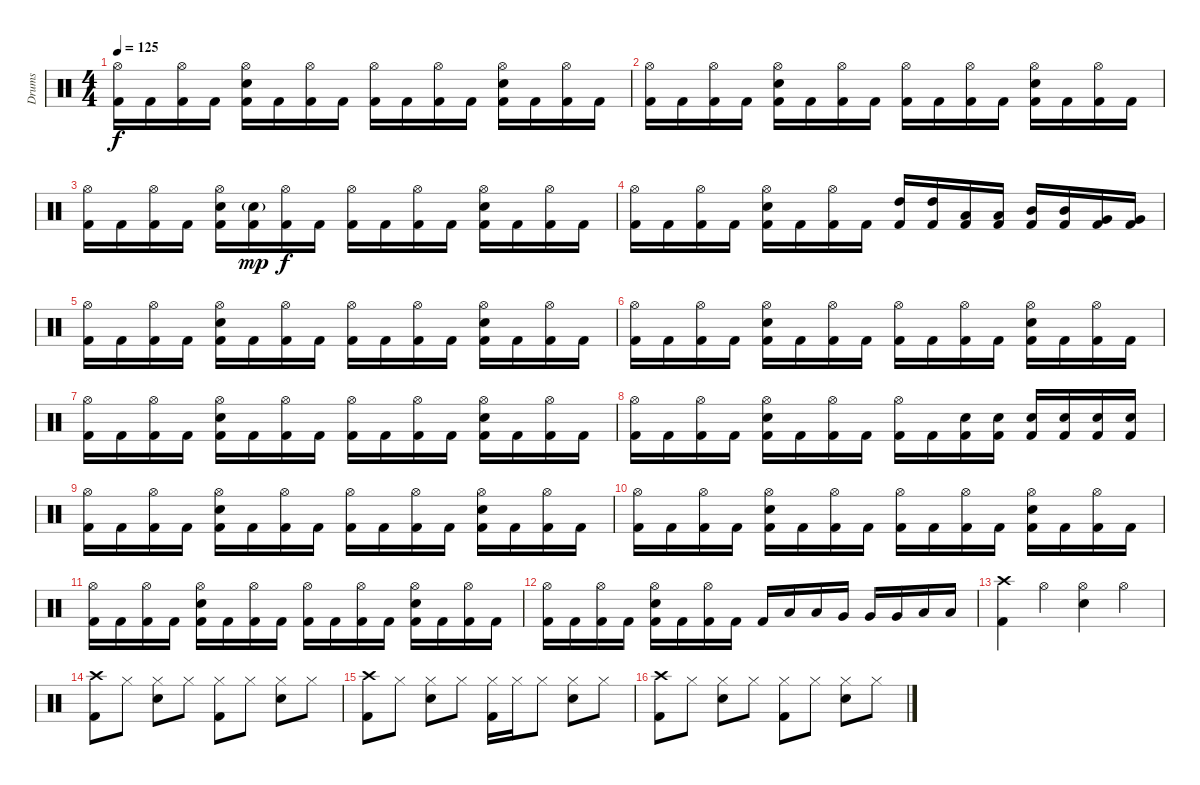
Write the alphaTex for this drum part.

\track ("Drums" "Drums") {instrument percussion}
\staff {score}
\articulation defaults
\ts (4 4)
\tempo 125
\clef neutral
\ks c
("Hi-Hat (open)" "Kick (hit) 2").16{dy f} "Kick (hit) 2".16 ("Hi-Hat (open)" "Kick (hit) 2").16 "Kick (hit) 2".16 ("Hi-Hat (open)" "Electric Snare (hit)" "Kick (hit) 2").16 "Kick (hit) 2".16 ("Hi-Hat (open)" "Kick (hit) 2").16 "Kick (hit) 2".16 ("Hi-Hat (open)" "Kick (hit) 2").16 "Kick (hit) 2".16 ("Hi-Hat (open)" "Kick (hit) 2").16 "Kick (hit) 2".16 ("Hi-Hat (open)" "Electric Snare (hit)" "Kick (hit) 2").16 "Kick (hit) 2".16 ("Hi-Hat (open)" "Kick (hit) 2").16 "Kick (hit) 2".16 |
("Hi-Hat (open)" "Kick (hit) 2").16 "Kick (hit) 2".16 ("Hi-Hat (open)" "Kick (hit) 2").16 "Kick (hit) 2".16 ("Hi-Hat (open)" "Electric Snare (hit)" "Kick (hit) 2").16 "Kick (hit) 2".16 ("Hi-Hat (open)" "Kick (hit) 2").16 "Kick (hit) 2".16 ("Hi-Hat (open)" "Kick (hit) 2").16 "Kick (hit) 2".16 ("Hi-Hat (open)" "Kick (hit) 2").16 "Kick (hit) 2".16 ("Hi-Hat (open)" "Electric Snare (hit)" "Kick (hit) 2").16 "Kick (hit) 2".16 ("Hi-Hat (open)" "Kick (hit) 2").16 "Kick (hit) 2".16 |
("Hi-Hat (open)" "Kick (hit) 2").16 "Kick (hit) 2".16 ("Hi-Hat (open)" "Kick (hit) 2").16 "Kick (hit) 2".16 ("Hi-Hat (open)" "Electric Snare (hit)" "Kick (hit) 2").16 ("Electric Snare (hit)"{g} "Kick (hit) 2").16{dy mp} ("Hi-Hat (open)" "Kick (hit) 2").16{dy f} "Kick (hit) 2".16 ("Hi-Hat (open)" "Kick (hit) 2").16 "Kick (hit) 2".16 ("Hi-Hat (open)" "Kick (hit) 2").16 "Kick (hit) 2".16 ("Hi-Hat (open)" "Electric Snare (hit)" "Kick (hit) 2").16 "Kick (hit) 2".16 ("Hi-Hat (open)" "Kick (hit) 2").16 "Kick (hit) 2".16 |
("Hi-Hat (open)" "Kick (hit) 2").16 "Kick (hit) 2".16 ("Hi-Hat (open)" "Kick (hit) 2").16 "Kick (hit) 2".16 ("Hi-Hat (open)" "Electric Snare (hit)" "Kick (hit) 2").16 "Kick (hit) 2".16 ("Hi-Hat (open)" "Kick (hit) 2").16 "Kick (hit) 2".16 ("High Tom (hit)" "Kick (hit) 2").16 ("High Tom (hit)" "Kick (hit) 2").16 ("Low Tom (hit)" "Kick (hit) 2").16 ("Low Tom (hit)" "Kick (hit) 2").16 ("Mid Tom (hit)" "Kick (hit) 2").16 ("Mid Tom (hit)" "Kick (hit) 2").16 ("Very Low Tom (hit)" "Kick (hit) 2").16 ("Very Low Tom (hit)" "Kick (hit) 2").16 |
("Hi-Hat (open)" "Kick (hit) 2").16 "Kick (hit) 2".16 ("Hi-Hat (open)" "Kick (hit) 2").16 "Kick (hit) 2".16 ("Hi-Hat (open)" "Electric Snare (hit)" "Kick (hit) 2").16 "Kick (hit) 2".16 ("Hi-Hat (open)" "Kick (hit) 2").16 "Kick (hit) 2".16 ("Hi-Hat (open)" "Kick (hit) 2").16 "Kick (hit) 2".16 ("Hi-Hat (open)" "Kick (hit) 2").16 "Kick (hit) 2".16 ("Hi-Hat (open)" "Electric Snare (hit)" "Kick (hit) 2").16 "Kick (hit) 2".16 ("Hi-Hat (open)" "Kick (hit) 2").16 "Kick (hit) 2".16 |
("Hi-Hat (open)" "Kick (hit) 2").16 "Kick (hit) 2".16 ("Hi-Hat (open)" "Kick (hit) 2").16 "Kick (hit) 2".16 ("Hi-Hat (open)" "Electric Snare (hit)" "Kick (hit) 2").16 "Kick (hit) 2".16 ("Hi-Hat (open)" "Kick (hit) 2").16 "Kick (hit) 2".16 ("Hi-Hat (open)" "Kick (hit) 2").16 "Kick (hit) 2".16 ("Hi-Hat (open)" "Kick (hit) 2").16 "Kick (hit) 2".16 ("Hi-Hat (open)" "Electric Snare (hit)" "Kick (hit) 2").16 "Kick (hit) 2".16 ("Hi-Hat (open)" "Kick (hit) 2").16 "Kick (hit) 2".16 |
("Hi-Hat (open)" "Kick (hit) 2").16 "Kick (hit) 2".16 ("Hi-Hat (open)" "Kick (hit) 2").16 "Kick (hit) 2".16 ("Hi-Hat (open)" "Electric Snare (hit)" "Kick (hit) 2").16 "Kick (hit) 2".16 ("Hi-Hat (open)" "Kick (hit) 2").16 "Kick (hit) 2".16 ("Hi-Hat (open)" "Kick (hit) 2").16 "Kick (hit) 2".16 ("Hi-Hat (open)" "Kick (hit) 2").16 "Kick (hit) 2".16 ("Hi-Hat (open)" "Electric Snare (hit)" "Kick (hit) 2").16 "Kick (hit) 2".16 ("Hi-Hat (open)" "Kick (hit) 2").16 "Kick (hit) 2".16 |
("Hi-Hat (open)" "Kick (hit) 2").16 "Kick (hit) 2".16 ("Hi-Hat (open)" "Kick (hit) 2").16 "Kick (hit) 2".16 ("Hi-Hat (open)" "Electric Snare (hit)" "Kick (hit) 2").16 "Kick (hit) 2".16 ("Hi-Hat (open)" "Kick (hit) 2").16 "Kick (hit) 2".16 ("Hi-Hat (open)" "Kick (hit) 2").16 "Kick (hit) 2".16 ("Electric Snare (hit)" "Kick (hit) 2").16 ("Electric Snare (hit)" "Kick (hit) 2").16 ("Electric Snare (hit)" "Kick (hit) 2").16 ("Electric Snare (hit)" "Kick (hit) 2").16 ("Electric Snare (hit)" "Kick (hit) 2").16 ("Electric Snare (hit)" "Kick (hit) 2").16 |
("Hi-Hat (open)" "Kick (hit) 2").16 "Kick (hit) 2".16 ("Hi-Hat (open)" "Kick (hit) 2").16 "Kick (hit) 2".16 ("Hi-Hat (open)" "Electric Snare (hit)" "Kick (hit) 2").16 "Kick (hit) 2".16 ("Hi-Hat (open)" "Kick (hit) 2").16 "Kick (hit) 2".16 ("Hi-Hat (open)" "Kick (hit) 2").16 "Kick (hit) 2".16 ("Hi-Hat (open)" "Kick (hit) 2").16 "Kick (hit) 2".16 ("Hi-Hat (open)" "Electric Snare (hit)" "Kick (hit) 2").16 "Kick (hit) 2".16 ("Hi-Hat (open)" "Kick (hit) 2").16 "Kick (hit) 2".16 |
("Hi-Hat (open)" "Kick (hit) 2").16 "Kick (hit) 2".16 ("Hi-Hat (open)" "Kick (hit) 2").16 "Kick (hit) 2".16 ("Hi-Hat (open)" "Electric Snare (hit)" "Kick (hit) 2").16 "Kick (hit) 2".16 ("Hi-Hat (open)" "Kick (hit) 2").16 "Kick (hit) 2".16 ("Hi-Hat (open)" "Kick (hit) 2").16 "Kick (hit) 2".16 ("Hi-Hat (open)" "Kick (hit) 2").16 "Kick (hit) 2".16 ("Hi-Hat (open)" "Electric Snare (hit)" "Kick (hit) 2").16 "Kick (hit) 2".16 ("Hi-Hat (open)" "Kick (hit) 2").16 "Kick (hit) 2".16 |
("Hi-Hat (open)" "Kick (hit) 2").16 "Kick (hit) 2".16 ("Hi-Hat (open)" "Kick (hit) 2").16 "Kick (hit) 2".16 ("Hi-Hat (open)" "Electric Snare (hit)" "Kick (hit) 2").16 "Kick (hit) 2".16 ("Hi-Hat (open)" "Kick (hit) 2").16 "Kick (hit) 2".16 ("Hi-Hat (open)" "Kick (hit) 2").16 "Kick (hit) 2".16 ("Hi-Hat (open)" "Kick (hit) 2").16 "Kick (hit) 2".16 ("Hi-Hat (open)" "Electric Snare (hit)" "Kick (hit) 2").16 "Kick (hit) 2".16 ("Hi-Hat (open)" "Kick (hit) 2").16 "Kick (hit) 2".16 |
("Hi-Hat (open)" "Kick (hit) 2").16 "Kick (hit) 2".16 ("Hi-Hat (open)" "Kick (hit) 2").16 "Kick (hit) 2".16 ("Hi-Hat (open)" "Electric Snare (hit)" "Kick (hit) 2").16 "Kick (hit) 2".16 ("Hi-Hat (open)" "Kick (hit) 2").16 "Kick (hit) 2".16 "Kick (hit) 2".16 "Low Tom (hit)".16 "Low Tom (hit)".16 "Very Low Tom (hit)".16 "Very Low Tom (hit)".16 "Very Low Tom (hit)".16 "Low Floor Tom (hit)".16 "Low Floor Tom (hit)".16 |
("Crash high (hit)" "Kick (hit) 2").4 "Hi-Hat (open)".4 ("Hi-Hat (open)" "Electric Snare (hit)").4 "Hi-Hat (open)".4 |
("Crash high (hit)" "Kick (hit) 2").8 "Hi-Hat (closed)".8 ("Hi-Hat (closed)" "Electric Snare (hit)").8 "Hi-Hat (closed)".8 ("Hi-Hat (closed)" "Kick (hit) 2").8 "Hi-Hat (closed)".8 ("Hi-Hat (closed)" "Electric Snare (hit)").8 "Hi-Hat (closed)".8 |
("Crash high (hit)" "Kick (hit) 2").8 "Hi-Hat (closed)".8 ("Hi-Hat (closed)" "Electric Snare (hit)").8 "Hi-Hat (closed)".8 ("Hi-Hat (closed)" "Kick (hit) 2").16 "Hi-Hat (closed)".16 "Hi-Hat (closed)".8 ("Hi-Hat (closed)" "Electric Snare (hit)").8 "Hi-Hat (closed)".8 |
("Crash high (hit)" "Kick (hit) 2").8 "Hi-Hat (closed)".8 ("Hi-Hat (closed)" "Electric Snare (hit)").8 "Hi-Hat (closed)".8 ("Hi-Hat (closed)" "Kick (hit) 2").8 "Hi-Hat (closed)".8 ("Hi-Hat (closed)" "Electric Snare (hit)").8 "Hi-Hat (closed)".8
